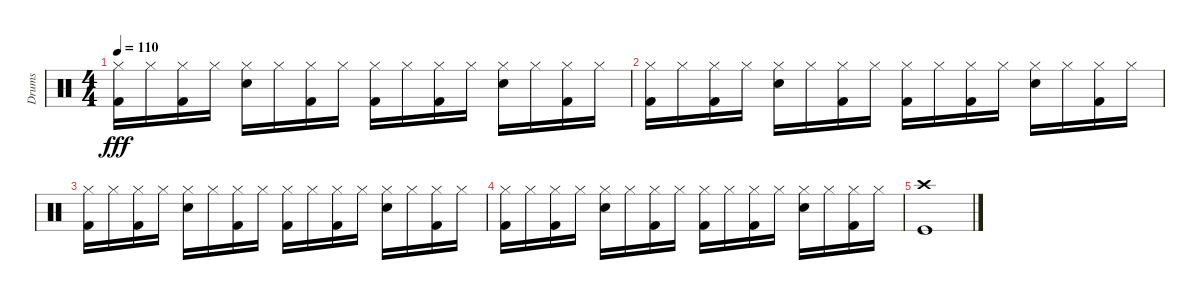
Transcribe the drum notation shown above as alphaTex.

\track ("Drums" "Drums") {instrument percussion}
\staff {score}
\articulation defaults
\ts (4 4)
\tempo 110
\clef neutral
\ks c
("Kick (hit) 2" "Hi-Hat (closed)").16{dy fff} "Hi-Hat (closed)".16 ("Kick (hit) 2" "Hi-Hat (closed)").16 "Hi-Hat (closed)".16 ("Electric Snare (hit)" "Hi-Hat (closed)").16 "Hi-Hat (closed)".16 ("Kick (hit) 2" "Hi-Hat (closed)").16 "Hi-Hat (closed)".16 ("Kick (hit) 2" "Hi-Hat (closed)").16 "Hi-Hat (closed)".16 ("Kick (hit) 2" "Hi-Hat (closed)").16 "Hi-Hat (closed)".16 ("Electric Snare (hit)" "Hi-Hat (closed)").16 "Hi-Hat (closed)".16 ("Kick (hit) 2" "Hi-Hat (closed)").16 "Hi-Hat (closed)".16 |
("Kick (hit) 2" "Hi-Hat (closed)").16 "Hi-Hat (closed)".16 ("Kick (hit) 2" "Hi-Hat (closed)").16 "Hi-Hat (closed)".16 ("Electric Snare (hit)" "Hi-Hat (closed)").16 "Hi-Hat (closed)".16 ("Kick (hit) 2" "Hi-Hat (closed)").16 "Hi-Hat (closed)".16 ("Kick (hit) 2" "Hi-Hat (closed)").16 "Hi-Hat (closed)".16 ("Kick (hit) 2" "Hi-Hat (closed)").16 "Hi-Hat (closed)".16 ("Electric Snare (hit)" "Hi-Hat (closed)").16 "Hi-Hat (closed)".16 ("Kick (hit) 2" "Hi-Hat (closed)").16 "Hi-Hat (closed)".16 |
("Kick (hit) 2" "Hi-Hat (closed)").16 "Hi-Hat (closed)".16 ("Kick (hit) 2" "Hi-Hat (closed)").16 "Hi-Hat (closed)".16 ("Electric Snare (hit)" "Hi-Hat (closed)").16 "Hi-Hat (closed)".16 ("Kick (hit) 2" "Hi-Hat (closed)").16 "Hi-Hat (closed)".16 ("Kick (hit) 2" "Hi-Hat (closed)").16 "Hi-Hat (closed)".16 ("Kick (hit) 2" "Hi-Hat (closed)").16 "Hi-Hat (closed)".16 ("Electric Snare (hit)" "Hi-Hat (closed)").16 "Hi-Hat (closed)".16 ("Kick (hit) 2" "Hi-Hat (closed)").16 "Hi-Hat (closed)".16 |
("Kick (hit) 2" "Hi-Hat (closed)").16 "Hi-Hat (closed)".16 ("Kick (hit) 2" "Hi-Hat (closed)").16 "Hi-Hat (closed)".16 ("Electric Snare (hit)" "Hi-Hat (closed)").16 "Hi-Hat (closed)".16 ("Kick (hit) 2" "Hi-Hat (closed)").16 "Hi-Hat (closed)".16 ("Kick (hit) 2" "Hi-Hat (closed)").16 "Hi-Hat (closed)".16 ("Kick (hit) 2" "Hi-Hat (closed)").16 "Hi-Hat (closed)".16 ("Electric Snare (hit)" "Hi-Hat (closed)").16 "Hi-Hat (closed)".16 ("Kick (hit) 2" "Hi-Hat (closed)").16 "Hi-Hat (closed)".16 |
("Crash high (hit)" "Kick (hit)").1
